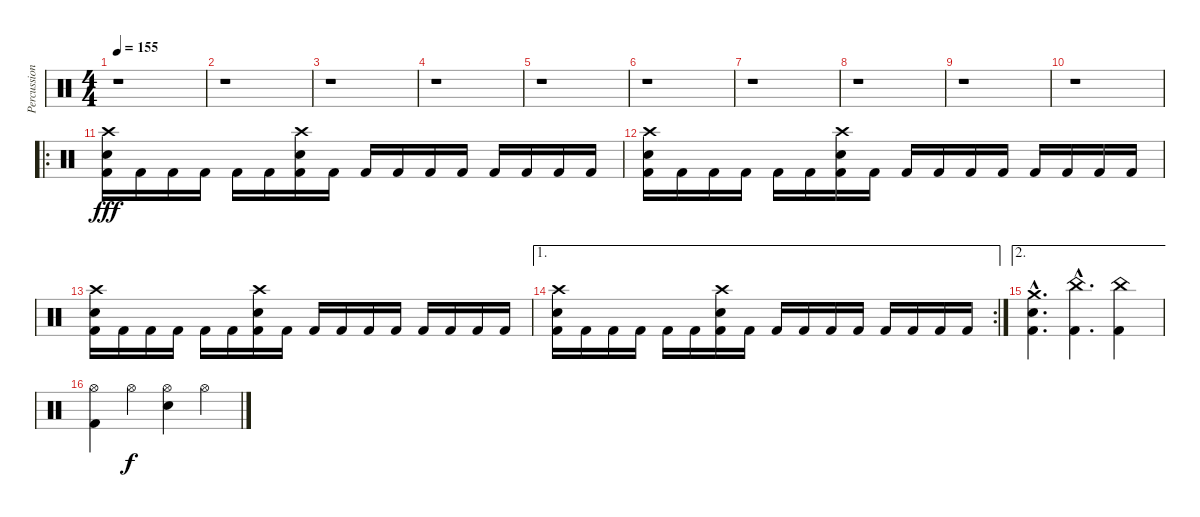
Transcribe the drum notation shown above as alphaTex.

\track ("Percussion" "Percussion") {instrument percussion}
\staff {score}
\articulation defaults
\ts (4 4)
\tempo 155
\clef neutral
\ks c
r.1{dy fff} |
r.1 |
r.1 |
r.1 |
r.1 |
r.1 |
r.1 |
r.1 |
r.1 |
r.1 |
\ro
("Crash high (hit)" "Snare (hit) 2" "Kick (hit) 2").16 "Kick (hit) 2".16 "Kick (hit) 2".16 "Kick (hit) 2".16 "Kick (hit) 2".16 "Kick (hit) 2".16 ("Crash high (hit)" "Snare (hit) 2" "Kick (hit) 2").16 "Kick (hit) 2".16 "Kick (hit) 2".16 "Kick (hit) 2".16 "Kick (hit) 2".16 "Kick (hit) 2".16 "Kick (hit) 2".16 "Kick (hit) 2".16 "Kick (hit) 2".16 "Kick (hit) 2".16 |
("Crash high (hit)" "Snare (hit) 2" "Kick (hit) 2").16 "Kick (hit) 2".16 "Kick (hit) 2".16 "Kick (hit) 2".16 "Kick (hit) 2".16 "Kick (hit) 2".16 ("Crash high (hit)" "Snare (hit) 2" "Kick (hit) 2").16 "Kick (hit) 2".16 "Kick (hit) 2".16 "Kick (hit) 2".16 "Kick (hit) 2".16 "Kick (hit) 2".16 "Kick (hit) 2".16 "Kick (hit) 2".16 "Kick (hit) 2".16 "Kick (hit) 2".16 |
("Crash high (hit)" "Snare (hit) 2" "Kick (hit) 2").16 "Kick (hit) 2".16 "Kick (hit) 2".16 "Kick (hit) 2".16 "Kick (hit) 2".16 "Kick (hit) 2".16 ("Crash high (hit)" "Snare (hit) 2" "Kick (hit) 2").16 "Kick (hit) 2".16 "Kick (hit) 2".16 "Kick (hit) 2".16 "Kick (hit) 2".16 "Kick (hit) 2".16 "Kick (hit) 2".16 "Kick (hit) 2".16 "Kick (hit) 2".16 "Kick (hit) 2".16 |
\ae 1
\rc 2
("Crash high (hit)" "Snare (hit) 2" "Kick (hit) 2").16 "Kick (hit) 2".16 "Kick (hit) 2".16 "Kick (hit) 2".16 "Kick (hit) 2".16 "Kick (hit) 2".16 ("Crash high (hit)" "Snare (hit) 2" "Kick (hit) 2").16 "Kick (hit) 2".16 "Kick (hit) 2".16 "Kick (hit) 2".16 "Kick (hit) 2".16 "Kick (hit) 2".16 "Kick (hit) 2".16 "Kick (hit) 2".16 "Kick (hit) 2".16 "Kick (hit) 2".16 |
\ae 2
("Crash medium (hit)"{hac} "Snare (hit) 2"{hac} "Kick (hit) 2"{hac}).4{d} ("China (hit)"{hac} "Kick (hit) 2"{hac}).4{d} ("China (hit)" "Kick (hit) 2").4 |
("Hi-Hat (open)" "Kick (hit) 2").4 "Hi-Hat (open)".4{dy f} ("Hi-Hat (open)" "Snare (hit) 2").4 "Hi-Hat (open)".4
